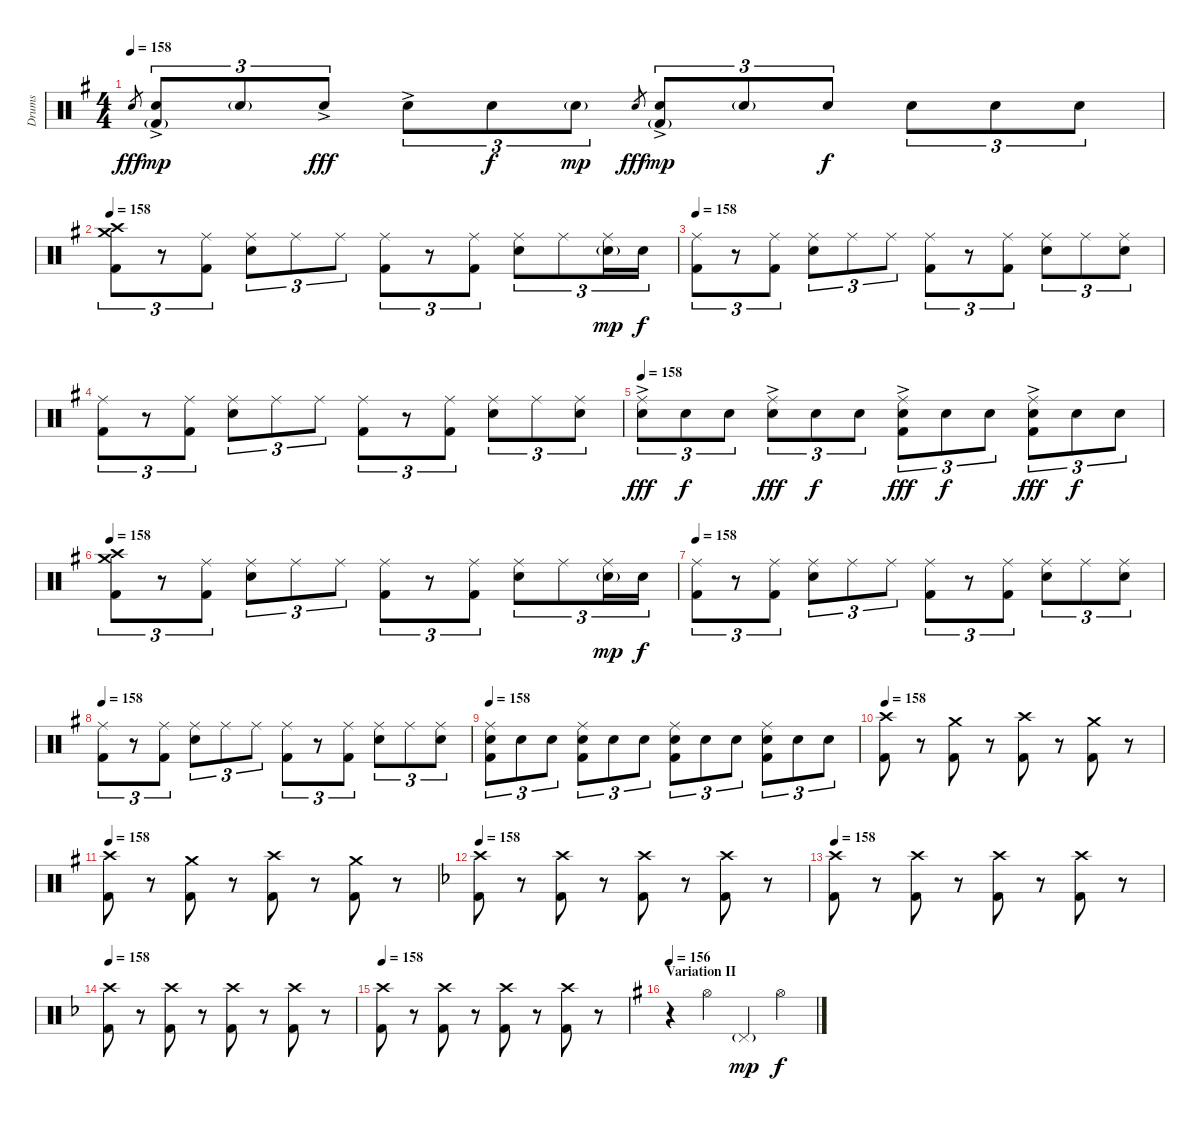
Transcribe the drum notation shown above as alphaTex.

\track ("Drums" "Drums") {instrument percussion}
\staff {score}
\articulation defaults
\ts (4 4)
\tempo 158
\clef neutral
\ks eminor "Snare (hit) 2".8{gr dy fff}
("Snare (hit) 2"{ac} "Kick (hit) 2"{g ac}).8{tu (3 2) dy mp} "Snare (hit) 2"{g}.8{tu (3 2)} "Snare (hit) 2"{ac}.8{tu (3 2) dy fff} "Snare (hit) 2"{ac}.8{tu (3 2)} "Snare (hit) 2".8{tu (3 2) dy f} "Snare (hit) 2"{g}.8{tu (3 2) dy mp} "Snare (hit) 2".8{gr dy fff} ("Snare (hit) 2"{ac} "Kick (hit) 2"{g ac}).8{tu (3 2) dy mp} "Snare (hit) 2"{g}.8{tu (3 2)} "Snare (hit) 2".8{tu (3 2) dy f} "Snare (hit) 2".8{tu (3 2)} "Snare (hit) 2".8{tu (3 2)} "Snare (hit) 2".8{tu (3 2)} |
\tempo 158
("Crash high (hit)" "Crash medium (hit)" "Kick (hit) 2").8{tu (3 2) volume 14} r.8{tu (3 2)} ("Ride (middle)" "Kick (hit) 2").8{tu (3 2)} ("Ride (middle)" "Snare (hit) 2").8{tu (3 2)} "Ride (middle)".8{tu (3 2)} "Ride (middle)".8{tu (3 2)} ("Ride (middle)" "Kick (hit) 2").8{tu (3 2)} r.8{tu (3 2)} ("Ride (middle)" "Kick (hit) 2").8{tu (3 2)} ("Ride (middle)" "Snare (hit) 2").8{tu (3 2)} "Ride (middle)".8{tu (3 2)} ("Ride (middle)" "Snare (hit) 2"{g}).16{tu (3 2) dy mp} "Snare (hit) 2".16{tu (3 2) dy f} |
\tempo 158
("Ride (middle)" "Kick (hit) 2").8{tu (3 2)} r.8{tu (3 2)} ("Ride (middle)" "Kick (hit) 2").8{tu (3 2)} ("Ride (middle)" "Snare (hit) 2").8{tu (3 2)} "Ride (middle)".8{tu (3 2)} "Ride (middle)".8{tu (3 2)} ("Ride (middle)" "Kick (hit) 2").8{tu (3 2)} r.8{tu (3 2)} ("Ride (middle)" "Kick (hit) 2").8{tu (3 2)} ("Ride (middle)" "Snare (hit) 2").8{tu (3 2)} "Ride (middle)".8{tu (3 2)} ("Ride (middle)" "Snare (hit) 2").8{tu (3 2)} |
("Ride (middle)" "Kick (hit) 2").8{tu (3 2)} r.8{tu (3 2)} ("Ride (middle)" "Kick (hit) 2").8{tu (3 2)} ("Ride (middle)" "Snare (hit) 2").8{tu (3 2)} "Ride (middle)".8{tu (3 2)} "Ride (middle)".8{tu (3 2)} ("Ride (middle)" "Kick (hit) 2").8{tu (3 2)} r.8{tu (3 2)} ("Ride (middle)" "Kick (hit) 2").8{tu (3 2)} ("Ride (middle)" "Snare (hit) 2").8{tu (3 2)} "Ride (middle)".8{tu (3 2)} ("Ride (middle)" "Snare (hit) 2").8{tu (3 2)} |
\tempo 158
("Ride (middle)" "Snare (hit) 2"{ac}).8{tu (3 2) dy fff} "Snare (hit) 2".8{tu (3 2) dy f} "Snare (hit) 2".8{tu (3 2)} ("Ride (middle)" "Snare (hit) 2"{ac}).8{tu (3 2) dy fff} "Snare (hit) 2".8{tu (3 2) dy f} "Snare (hit) 2".8{tu (3 2)} ("Ride (middle)" "Snare (hit) 2"{ac} "Kick (hit) 2").8{tu (3 2) dy fff} "Snare (hit) 2".8{tu (3 2) dy f} "Snare (hit) 2".8{tu (3 2)} ("Ride (middle)" "Snare (hit) 2"{ac} "Kick (hit) 2").8{tu (3 2) dy fff} "Snare (hit) 2".8{tu (3 2) dy f} "Snare (hit) 2".8{tu (3 2)} |
\tempo 158
("Crash high (hit)" "Crash medium (hit)" "Kick (hit) 2").8{tu (3 2) volume 14} r.8{tu (3 2)} ("Ride (middle)" "Kick (hit) 2").8{tu (3 2)} ("Ride (middle)" "Snare (hit) 2").8{tu (3 2)} "Ride (middle)".8{tu (3 2)} "Ride (middle)".8{tu (3 2)} ("Ride (middle)" "Kick (hit) 2").8{tu (3 2)} r.8{tu (3 2)} ("Ride (middle)" "Kick (hit) 2").8{tu (3 2)} ("Ride (middle)" "Snare (hit) 2").8{tu (3 2)} "Ride (middle)".8{tu (3 2)} ("Ride (middle)" "Snare (hit) 2"{g}).16{tu (3 2) dy mp} "Snare (hit) 2".16{tu (3 2) dy f} |
\tempo 158
("Ride (middle)" "Kick (hit) 2").8{tu (3 2)} r.8{tu (3 2)} ("Ride (middle)" "Kick (hit) 2").8{tu (3 2)} ("Ride (middle)" "Snare (hit) 2").8{tu (3 2)} "Ride (middle)".8{tu (3 2)} "Ride (middle)".8{tu (3 2)} ("Ride (middle)" "Kick (hit) 2").8{tu (3 2)} r.8{tu (3 2)} ("Ride (middle)" "Kick (hit) 2").8{tu (3 2)} ("Ride (middle)" "Snare (hit) 2").8{tu (3 2)} "Ride (middle)".8{tu (3 2)} ("Ride (middle)" "Snare (hit) 2").8{tu (3 2)} |
\tempo 158
("Ride (middle)" "Kick (hit) 2").8{tu (3 2)} r.8{tu (3 2)} ("Ride (middle)" "Kick (hit) 2").8{tu (3 2)} ("Ride (middle)" "Snare (hit) 2").8{tu (3 2)} "Ride (middle)".8{tu (3 2)} "Ride (middle)".8{tu (3 2)} ("Ride (middle)" "Kick (hit) 2").8{tu (3 2)} r.8{tu (3 2)} ("Ride (middle)" "Kick (hit) 2").8{tu (3 2)} ("Ride (middle)" "Snare (hit) 2").8{tu (3 2)} "Ride (middle)".8{tu (3 2)} ("Ride (middle)" "Snare (hit) 2").8{tu (3 2)} |
\tempo 158
("Ride (middle)" "Snare (hit) 2" "Kick (hit) 2").8{tu (3 2)} "Snare (hit) 2".8{tu (3 2)} "Snare (hit) 2".8{tu (3 2)} ("Ride (middle)" "Snare (hit) 2" "Kick (hit) 2").8{tu (3 2)} "Snare (hit) 2".8{tu (3 2)} "Snare (hit) 2".8{tu (3 2)} ("Ride (middle)" "Snare (hit) 2" "Kick (hit) 2").8{tu (3 2)} "Snare (hit) 2".8{tu (3 2)} "Snare (hit) 2".8{tu (3 2)} ("Ride (middle)" "Snare (hit) 2" "Kick (hit) 2").8{tu (3 2)} "Snare (hit) 2".8{tu (3 2)} "Snare (hit) 2".8{tu (3 2)} |
\tempo 158
("Crash high (hit)" "Kick (hit) 2").8{volume 14} r.8 ("Crash medium (hit)" "Kick (hit) 2").8 r.8 ("Crash high (hit)" "Kick (hit) 2").8 r.8 ("Crash medium (hit)" "Kick (hit) 2").8 r.8 |
\tempo 158
("Crash high (hit)" "Kick (hit) 2").8{volume 14} r.8 ("Crash medium (hit)" "Kick (hit) 2").8 r.8 ("Crash high (hit)" "Kick (hit) 2").8 r.8 ("Crash medium (hit)" "Kick (hit) 2").8 r.8 |
\tempo 158
\ks dminor
("Crash high (hit)" "Kick (hit) 2").8{volume 14} r.8{volume 0} ("Crash high (hit)" "Kick (hit) 2").8{volume 14} r.8{volume 0} ("Crash high (hit)" "Kick (hit) 2").8{volume 14} r.8{volume 0} ("Crash high (hit)" "Kick (hit) 2").8{volume 14} r.8{volume 0} |
\tempo 158
("Crash high (hit)" "Kick (hit) 2").8{volume 14} r.8{volume 0} ("Crash high (hit)" "Kick (hit) 2").8{volume 14} r.8{volume 0} ("Crash high (hit)" "Kick (hit) 2").8{volume 14} r.8{volume 0} ("Crash high (hit)" "Kick (hit) 2").8{volume 14} r.8{volume 0} |
\tempo 158
("Crash high (hit)" "Kick (hit) 2").8{volume 14} r.8{volume 0} ("Crash high (hit)" "Kick (hit) 2").8{volume 14} r.8{volume 0} ("Crash high (hit)" "Kick (hit) 2").8{volume 14} r.8{volume 0} ("Crash high (hit)" "Kick (hit) 2").8{volume 14} r.8{volume 0} |
\tempo 158
("Crash high (hit)" "Kick (hit) 2").8{volume 14} r.8{volume 0} ("Crash high (hit)" "Kick (hit) 2").8{volume 14} r.8{volume 0} ("Crash high (hit)" "Kick (hit) 2").8{volume 14} r.8{volume 0} ("Crash high (hit)" "Kick (hit) 2").8{volume 14} r.8{volume 0} |
\section ("" "Variation II")
\tempo 156
\ks eminor
r.4 "Hi-Hat (open)".4{volume 14} "Pedal Hi-Hat (hit)"{g}.4{dy mp} "Hi-Hat (open)".4{dy f}
